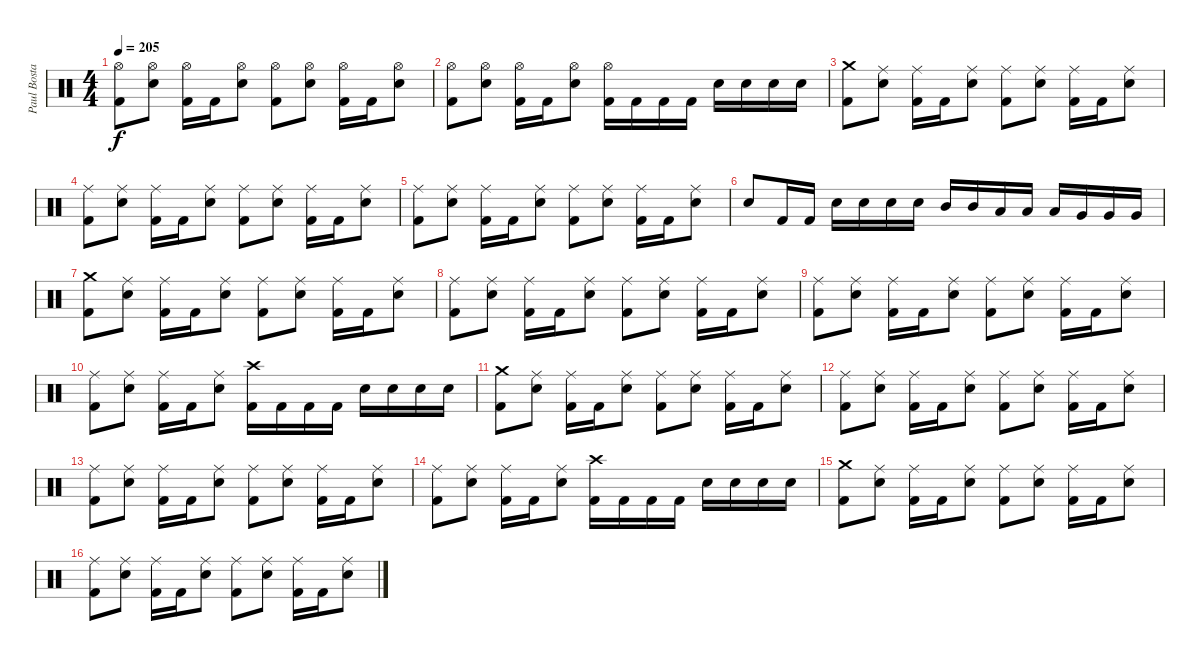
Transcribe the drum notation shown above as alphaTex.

\track ("Paul Bostaph" "Paul Bosta") {instrument percussion}
\staff {score}
\articulation defaults
\ts (4 4)
\tempo 205
\clef neutral
\ks c
("Hi-Hat (open)" "Kick (hit) 2").8{dy f} ("Hi-Hat (open)" "Electric Snare (hit)").8 ("Hi-Hat (open)" "Kick (hit) 2").16 "Kick (hit) 2".16 ("Hi-Hat (open)" "Electric Snare (hit)").8 ("Hi-Hat (open)" "Kick (hit) 2").8 ("Hi-Hat (open)" "Electric Snare (hit)").8 ("Hi-Hat (open)" "Kick (hit) 2").16 "Kick (hit) 2".16 ("Hi-Hat (open)" "Electric Snare (hit)").8 |
("Hi-Hat (open)" "Kick (hit) 2").8 ("Hi-Hat (open)" "Electric Snare (hit)").8 ("Hi-Hat (open)" "Kick (hit) 2").16 "Kick (hit) 2".16 ("Hi-Hat (open)" "Electric Snare (hit)").8 ("Hi-Hat (open)" "Kick (hit) 2").16 "Kick (hit) 2".16 "Kick (hit) 2".16 "Kick (hit) 2".16 "Electric Snare (hit)".16 "Electric Snare (hit)".16 "Electric Snare (hit)".16 "Electric Snare (hit)".16 |
("Crash medium (hit)" "Kick (hit) 2").8 ("Ride (middle)" "Electric Snare (hit)").8 ("Ride (middle)" "Kick (hit) 2").16 "Kick (hit) 2".16 ("Ride (middle)" "Electric Snare (hit)").8 ("Ride (middle)" "Kick (hit) 2").8 ("Ride (middle)" "Electric Snare (hit)").8 ("Ride (middle)" "Kick (hit) 2").16 "Kick (hit) 2".16 ("Ride (middle)" "Electric Snare (hit)").8 |
("Ride (middle)" "Kick (hit) 2").8 ("Ride (middle)" "Electric Snare (hit)").8 ("Ride (middle)" "Kick (hit) 2").16 "Kick (hit) 2".16 ("Ride (middle)" "Electric Snare (hit)").8 ("Ride (middle)" "Kick (hit) 2").8 ("Ride (middle)" "Electric Snare (hit)").8 ("Ride (middle)" "Kick (hit) 2").16 "Kick (hit) 2".16 ("Ride (middle)" "Electric Snare (hit)").8 |
("Ride (middle)" "Kick (hit) 2").8 ("Ride (middle)" "Electric Snare (hit)").8 ("Ride (middle)" "Kick (hit) 2").16 "Kick (hit) 2".16 ("Ride (middle)" "Electric Snare (hit)").8 ("Ride (middle)" "Kick (hit) 2").8 ("Ride (middle)" "Electric Snare (hit)").8 ("Ride (middle)" "Kick (hit) 2").16 "Kick (hit) 2".16 ("Ride (middle)" "Electric Snare (hit)").8 |
"Electric Snare (hit)".8 "Kick (hit) 2".16 "Kick (hit) 2".16 "Electric Snare (hit)".16 "Electric Snare (hit)".16 "Electric Snare (hit)".16 "Electric Snare (hit)".16 "Mid Tom (hit)".16 "Mid Tom (hit)".16 "Low Tom (hit)".16 "Low Tom (hit)".16 "Low Tom (hit)".16 "Very Low Tom (hit)".16 "Very Low Tom (hit)".16 "Very Low Tom (hit)".16 |
("Crash medium (hit)" "Kick (hit) 2").8 ("Ride (middle)" "Electric Snare (hit)").8 ("Ride (middle)" "Kick (hit) 2").16 "Kick (hit) 2".16 ("Ride (middle)" "Electric Snare (hit)").8 ("Ride (middle)" "Kick (hit) 2").8 ("Ride (middle)" "Electric Snare (hit)").8 ("Ride (middle)" "Kick (hit) 2").16 "Kick (hit) 2".16 ("Ride (middle)" "Electric Snare (hit)").8 |
("Ride (middle)" "Kick (hit) 2").8 ("Ride (middle)" "Electric Snare (hit)").8 ("Ride (middle)" "Kick (hit) 2").16 "Kick (hit) 2".16 ("Ride (middle)" "Electric Snare (hit)").8 ("Ride (middle)" "Kick (hit) 2").8 ("Ride (middle)" "Electric Snare (hit)").8 ("Ride (middle)" "Kick (hit) 2").16 "Kick (hit) 2".16 ("Ride (middle)" "Electric Snare (hit)").8 |
("Ride (middle)" "Kick (hit) 2").8 ("Ride (middle)" "Electric Snare (hit)").8 ("Ride (middle)" "Kick (hit) 2").16 "Kick (hit) 2".16 ("Ride (middle)" "Electric Snare (hit)").8 ("Ride (middle)" "Kick (hit) 2").8 ("Ride (middle)" "Electric Snare (hit)").8 ("Ride (middle)" "Kick (hit) 2").16 "Kick (hit) 2".16 ("Ride (middle)" "Electric Snare (hit)").8 |
("Ride (middle)" "Kick (hit) 2").8 ("Ride (middle)" "Electric Snare (hit)").8 ("Ride (middle)" "Kick (hit) 2").16 "Kick (hit) 2".16 ("Ride (middle)" "Electric Snare (hit)").8 ("Crash high (hit)" "Kick (hit) 2").16 "Kick (hit) 2".16 "Kick (hit) 2".16 "Kick (hit) 2".16 "Electric Snare (hit)".16 "Electric Snare (hit)".16 "Electric Snare (hit)".16 "Electric Snare (hit)".16 |
("Crash medium (hit)" "Kick (hit) 2").8 ("Ride (middle)" "Electric Snare (hit)").8 ("Ride (middle)" "Kick (hit) 2").16 "Kick (hit) 2".16 ("Ride (middle)" "Electric Snare (hit)").8 ("Ride (middle)" "Kick (hit) 2").8 ("Ride (middle)" "Electric Snare (hit)").8 ("Ride (middle)" "Kick (hit) 2").16 "Kick (hit) 2".16 ("Ride (middle)" "Electric Snare (hit)").8 |
("Ride (middle)" "Kick (hit) 2").8 ("Ride (middle)" "Electric Snare (hit)").8 ("Ride (middle)" "Kick (hit) 2").16 "Kick (hit) 2".16 ("Ride (middle)" "Electric Snare (hit)").8 ("Ride (middle)" "Kick (hit) 2").8 ("Ride (middle)" "Electric Snare (hit)").8 ("Ride (middle)" "Kick (hit) 2").16 "Kick (hit) 2".16 ("Ride (middle)" "Electric Snare (hit)").8 |
("Ride (middle)" "Kick (hit) 2").8 ("Ride (middle)" "Electric Snare (hit)").8 ("Ride (middle)" "Kick (hit) 2").16 "Kick (hit) 2".16 ("Ride (middle)" "Electric Snare (hit)").8 ("Ride (middle)" "Kick (hit) 2").8 ("Ride (middle)" "Electric Snare (hit)").8 ("Ride (middle)" "Kick (hit) 2").16 "Kick (hit) 2".16 ("Ride (middle)" "Electric Snare (hit)").8 |
("Ride (middle)" "Kick (hit) 2").8 ("Ride (middle)" "Electric Snare (hit)").8 ("Ride (middle)" "Kick (hit) 2").16 "Kick (hit) 2".16 ("Ride (middle)" "Electric Snare (hit)").8 ("Crash high (hit)" "Kick (hit) 2").16 "Kick (hit) 2".16 "Kick (hit) 2".16 "Kick (hit) 2".16 "Electric Snare (hit)".16 "Electric Snare (hit)".16 "Electric Snare (hit)".16 "Electric Snare (hit)".16 |
("Crash medium (hit)" "Kick (hit) 2").8 ("Ride (middle)" "Electric Snare (hit)").8 ("Ride (middle)" "Kick (hit) 2").16 "Kick (hit) 2".16 ("Ride (middle)" "Electric Snare (hit)").8 ("Ride (middle)" "Kick (hit) 2").8 ("Ride (middle)" "Electric Snare (hit)").8 ("Ride (middle)" "Kick (hit) 2").16 "Kick (hit) 2".16 ("Ride (middle)" "Electric Snare (hit)").8 |
("Ride (middle)" "Kick (hit) 2").8 ("Ride (middle)" "Electric Snare (hit)").8 ("Ride (middle)" "Kick (hit) 2").16 "Kick (hit) 2".16 ("Ride (middle)" "Electric Snare (hit)").8 ("Ride (middle)" "Kick (hit) 2").8 ("Ride (middle)" "Electric Snare (hit)").8 ("Ride (middle)" "Kick (hit) 2").16 "Kick (hit) 2".16 ("Ride (middle)" "Electric Snare (hit)").8
